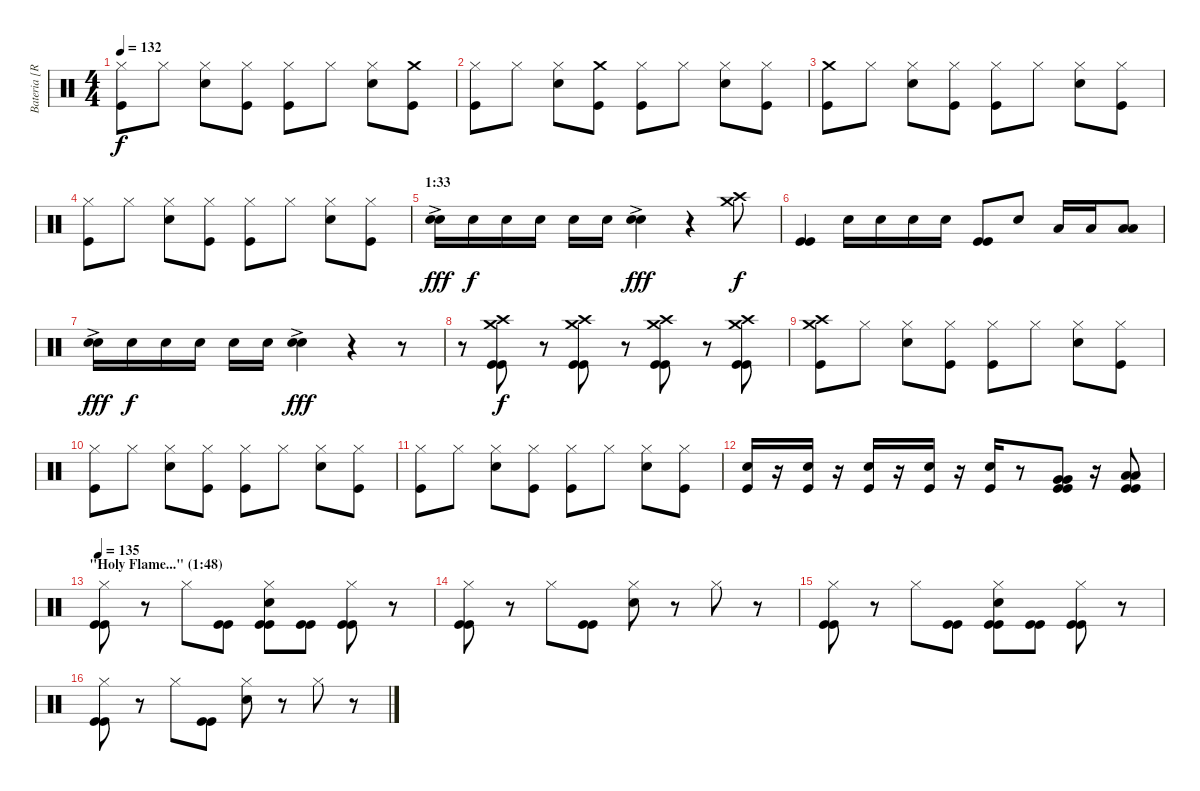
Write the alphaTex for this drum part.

\track ("Bateria [Ricardo Confessori]" "Bateria [R") {instrument percussion}
\staff {score}
\articulation defaults
\ts (4 4)
\tempo 132
\clef neutral
\ks c
("Hi-Hat (closed)" "Kick (hit)").8{dy f} "Hi-Hat (closed)".8 ("Hi-Hat (closed)" "Electric Snare (hit)").8 ("Hi-Hat (closed)" "Kick (hit)").8 ("Hi-Hat (closed)" "Kick (hit)").8 "Hi-Hat (closed)".8 ("Hi-Hat (closed)" "Electric Snare (hit)").8 ("Crash medium (hit)" "Kick (hit)").8 |
("Hi-Hat (closed)" "Kick (hit)").8 "Hi-Hat (closed)".8 ("Hi-Hat (closed)" "Electric Snare (hit)").8 ("Crash medium (hit)" "Kick (hit)").8 ("Hi-Hat (closed)" "Kick (hit)").8 "Hi-Hat (closed)".8 ("Hi-Hat (closed)" "Electric Snare (hit)").8 ("Hi-Hat (closed)" "Kick (hit)").8 |
("Crash medium (hit)" "Kick (hit)").8 "Hi-Hat (closed)".8 ("Hi-Hat (closed)" "Electric Snare (hit)").8 ("Hi-Hat (closed)" "Kick (hit)").8 ("Hi-Hat (closed)" "Kick (hit)").8 "Hi-Hat (closed)".8 ("Hi-Hat (closed)" "Electric Snare (hit)").8 ("Hi-Hat (closed)" "Kick (hit)").8 |
("Hi-Hat (closed)" "Kick (hit)").8 "Hi-Hat (closed)".8 ("Hi-Hat (closed)" "Electric Snare (hit)").8 ("Hi-Hat (closed)" "Kick (hit)").8 ("Hi-Hat (closed)" "Kick (hit)").8 "Hi-Hat (closed)".8 ("Hi-Hat (closed)" "Electric Snare (hit)").8 ("Hi-Hat (closed)" "Kick (hit)").8 |
\section ("" "1:33")
("Electric Snare (hit)"{ac} "Electric Snare (hit)").16{dy fff volume 10} "Electric Snare (hit)".16{dy f} "Electric Snare (hit)".16 "Electric Snare (hit)".16 "Electric Snare (hit)".16 "Electric Snare (hit)".16 ("Electric Snare (hit)"{ac} "Electric Snare (hit)").4{dy fff} r.4 ("Crash medium (hit)" "Crash high (hit)").8{dy f} |
("Kick (hit)" "Kick (hit)").4 "Electric Snare (hit)".16 "Electric Snare (hit)".16 "Electric Snare (hit)".16 "Electric Snare (hit)".16 ("Kick (hit)" "Kick (hit)").8 "Electric Snare (hit)".8 "Low Tom (hit)".16 "Low Tom (hit)".16 ("Low Floor Tom (hit)" "Low Floor Tom (hit)").8 |
("Electric Snare (hit)"{ac} "Electric Snare (hit)").16{dy fff} "Electric Snare (hit)".16{dy f} "Electric Snare (hit)".16 "Electric Snare (hit)".16 "Electric Snare (hit)".16 "Electric Snare (hit)".16 ("Electric Snare (hit)"{ac} "Electric Snare (hit)").4{dy fff} r.4 r.8 |
r.8 ("Crash medium (hit)" "Crash high (hit)" "Kick (hit)" "Kick (hit)").8{dy f} r.8 ("Crash medium (hit)" "Crash high (hit)" "Kick (hit)" "Kick (hit)").8 r.8 ("Crash medium (hit)" "Crash high (hit)" "Kick (hit)" "Kick (hit)").8 r.8 ("Crash medium (hit)" "Crash high (hit)" "Kick (hit)" "Kick (hit)").8 |
("Crash medium (hit)" "Crash high (hit)" "Kick (hit)").8 "Hi-Hat (closed)".8 ("Hi-Hat (closed)" "Electric Snare (hit)").8 ("Hi-Hat (closed)" "Kick (hit)").8 ("Hi-Hat (closed)" "Kick (hit)").8 "Hi-Hat (closed)".8 ("Hi-Hat (closed)" "Electric Snare (hit)").8 ("Hi-Hat (closed)" "Kick (hit)").8 |
("Hi-Hat (closed)" "Kick (hit)").8 "Hi-Hat (closed)".8 ("Hi-Hat (closed)" "Electric Snare (hit)").8 ("Hi-Hat (closed)" "Kick (hit)").8 ("Hi-Hat (closed)" "Kick (hit)").8 "Hi-Hat (closed)".8 ("Hi-Hat (closed)" "Electric Snare (hit)").8 ("Hi-Hat (closed)" "Kick (hit)").8 |
("Hi-Hat (closed)" "Kick (hit)").8 "Hi-Hat (closed)".8 ("Hi-Hat (closed)" "Electric Snare (hit)").8 ("Hi-Hat (closed)" "Kick (hit)").8 ("Hi-Hat (closed)" "Kick (hit)").8 "Hi-Hat (closed)".8 ("Hi-Hat (closed)" "Electric Snare (hit)").8 ("Hi-Hat (closed)" "Kick (hit)").8 |
("Electric Snare (hit)" "Kick (hit)").16 r.16 ("Electric Snare (hit)" "Kick (hit)").16 r.16 ("Electric Snare (hit)" "Kick (hit)").16 r.16 ("Electric Snare (hit)" "Kick (hit)").16 r.16 ("Electric Snare (hit)" "Kick (hit)").16 r.8 ("Very Low Tom (hit)" "Very Low Tom (hit)" "Kick (hit)" "Kick (hit)").8 r.16 ("Low Floor Tom (hit)" "Low Floor Tom (hit)" "Kick (hit)" "Kick (hit)").8 |
\section ("" "\"Holy Flame...\" (1:48)")
\tempo 135
("Hi-Hat (closed)" "Kick (hit)" "Kick (hit)").8 r.8 "Hi-Hat (closed)".8 ("Kick (hit)" "Kick (hit)").8 ("Hi-Hat (closed)" "Electric Snare (hit)" "Kick (hit)" "Kick (hit)").8 ("Kick (hit)" "Kick (hit)").8 ("Hi-Hat (closed)" "Kick (hit)" "Kick (hit)").8 r.8 |
("Hi-Hat (closed)" "Kick (hit)" "Kick (hit)").8 r.8 "Hi-Hat (closed)".8 ("Kick (hit)" "Kick (hit)").8 ("Hi-Hat (closed)" "Electric Snare (hit)").8 r.8 "Hi-Hat (closed)".8 r.8 |
("Hi-Hat (closed)" "Kick (hit)" "Kick (hit)").8 r.8 "Hi-Hat (closed)".8 ("Kick (hit)" "Kick (hit)").8 ("Hi-Hat (closed)" "Electric Snare (hit)" "Kick (hit)" "Kick (hit)").8 ("Kick (hit)" "Kick (hit)").8 ("Hi-Hat (closed)" "Kick (hit)" "Kick (hit)").8 r.8 |
("Hi-Hat (closed)" "Kick (hit)" "Kick (hit)").8 r.8 "Hi-Hat (closed)".8 ("Kick (hit)" "Kick (hit)").8 ("Hi-Hat (closed)" "Electric Snare (hit)").8 r.8 "Hi-Hat (closed)".8 r.8
